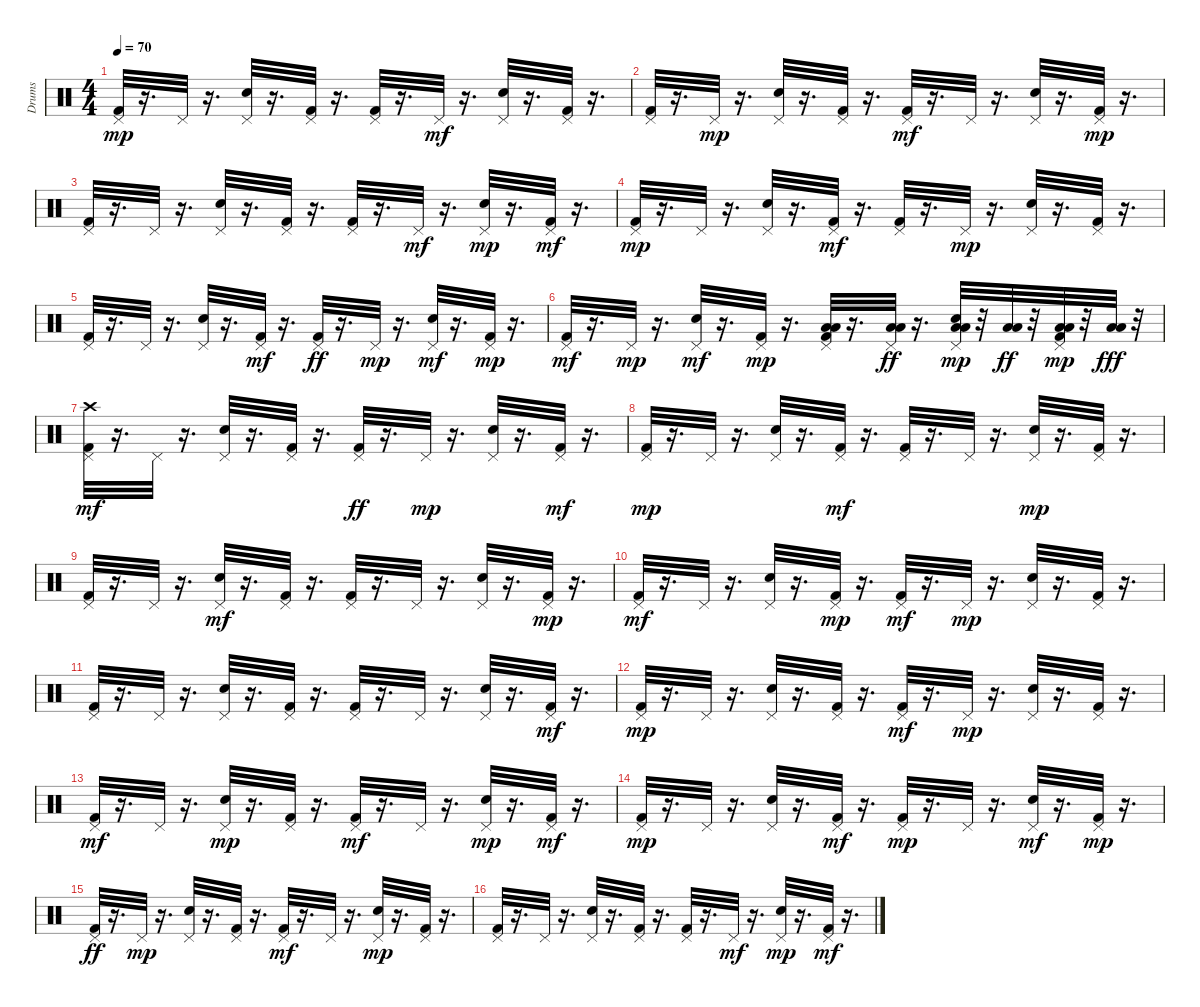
\track ("Drums" "Drums") {instrument percussion}
\staff {score}
\articulation defaults
\ts (4 4)
\tempo 70
\clef neutral
\ks c
("Pedal Hi-Hat (hit)" "Kick (hit) 2").32{dy mp} r.16{d} "Pedal Hi-Hat (hit)".32 r.16{d} ("Snare (hit) 2" "Pedal Hi-Hat (hit)").32 r.16{d} ("Pedal Hi-Hat (hit)" "Kick (hit) 2").32 r.16{d} ("Pedal Hi-Hat (hit)" "Kick (hit) 2").32 r.16{d} "Pedal Hi-Hat (hit)".32{dy mf} r.16{d} ("Snare (hit) 2" "Pedal Hi-Hat (hit)").32 r.16{d} ("Pedal Hi-Hat (hit)" "Kick (hit) 2").32 r.16{d} |
("Kick (hit) 2" "Pedal Hi-Hat (hit)").32 r.16{d} "Pedal Hi-Hat (hit)".32{dy mp} r.16{d} ("Snare (hit) 2" "Pedal Hi-Hat (hit)").32 r.16{d} ("Kick (hit) 2" "Pedal Hi-Hat (hit)").32 r.16{d} ("Kick (hit) 2" "Pedal Hi-Hat (hit)").32{dy mf} r.16{d} "Pedal Hi-Hat (hit)".32 r.16{d} ("Snare (hit) 2" "Pedal Hi-Hat (hit)").32 r.16{d} ("Kick (hit) 2" "Pedal Hi-Hat (hit)").32{dy mp} r.16{d} |
("Kick (hit) 2" "Pedal Hi-Hat (hit)").32 r.16{d} "Pedal Hi-Hat (hit)".32 r.16{d} ("Snare (hit) 2" "Pedal Hi-Hat (hit)").32 r.16{d} ("Kick (hit) 2" "Pedal Hi-Hat (hit)").32 r.16{d} ("Kick (hit) 2" "Pedal Hi-Hat (hit)").32 r.16{d} "Pedal Hi-Hat (hit)".32{dy mf} r.16{d} ("Snare (hit) 2" "Pedal Hi-Hat (hit)").32{dy mp} r.16{d} ("Pedal Hi-Hat (hit)" "Kick (hit) 2").32{dy mf} r.16{d} |
("Kick (hit) 2" "Pedal Hi-Hat (hit)").32{dy mp} r.16{d} "Pedal Hi-Hat (hit)".32 r.16{d} ("Pedal Hi-Hat (hit)" "Snare (hit) 2").32 r.16{d} ("Kick (hit) 2" "Pedal Hi-Hat (hit)").32{dy mf} r.16{d} ("Kick (hit) 2" "Pedal Hi-Hat (hit)").32 r.16{d} "Pedal Hi-Hat (hit)".32{dy mp} r.16{d} ("Snare (hit) 2" "Pedal Hi-Hat (hit)").32 r.16{d} ("Pedal Hi-Hat (hit)" "Kick (hit) 2").32 r.16{d} |
("Pedal Hi-Hat (hit)" "Kick (hit) 2").32 r.16{d} "Pedal Hi-Hat (hit)".32 r.16{d} ("Snare (hit) 2" "Pedal Hi-Hat (hit)").32 r.16{d} ("Kick (hit) 2" "Pedal Hi-Hat (hit)").32{dy mf} r.16{d} ("Pedal Hi-Hat (hit)" "Kick (hit) 2").32{dy ff} r.16{d} "Pedal Hi-Hat (hit)".32{dy mp} r.16{d} ("Pedal Hi-Hat (hit)" "Snare (hit) 2").32{dy mf} r.16{d} ("Kick (hit) 2" "Pedal Hi-Hat (hit)").32{dy mp} r.16{d} |
("Kick (hit) 2" "Pedal Hi-Hat (hit)").32{dy mf} r.16{d} "Pedal Hi-Hat (hit)".32{dy mp} r.16{d} ("Pedal Hi-Hat (hit)" "Snare (hit) 2").32{dy mf} r.16{d} ("Pedal Hi-Hat (hit)" "Kick (hit) 2").32{dy mp} r.16{d} ("Low Floor Tom (hit)" "Kick (hit) 2" "Pedal Hi-Hat (hit)" "Low Tom (hit)").32 r.16{d} ("Pedal Hi-Hat (hit)" "Low Tom (hit)" "Low Floor Tom (hit)").32{dy ff} r.16{d} ("Low Tom (hit)" "Low Floor Tom (hit)" "Snare (hit) 2" "Pedal Hi-Hat (hit)").32{dy mp} r.32 ("Low Tom (hit)" "Low Floor Tom (hit)").32{dy ff} r.32 ("Low Tom (hit)" "Kick (hit) 2" "Low Floor Tom (hit)" "Pedal Hi-Hat (hit)").32{dy mp} r.32 ("Low Floor Tom (hit)" "Low Tom (hit)").32{dy fff} r.32 |
("Pedal Hi-Hat (hit)" "Kick (hit) 2" "Crash high (hit)").32{dy mf} r.16{d} "Pedal Hi-Hat (hit)".32 r.16{d} ("Pedal Hi-Hat (hit)" "Snare (hit) 2").32 r.16{d} ("Pedal Hi-Hat (hit)" "Kick (hit) 2").32 r.16{d} ("Pedal Hi-Hat (hit)" "Kick (hit) 2").32{dy ff} r.16{d} "Pedal Hi-Hat (hit)".32{dy mp} r.16{d} ("Pedal Hi-Hat (hit)" "Snare (hit) 2").32 r.16{d} ("Kick (hit) 2" "Pedal Hi-Hat (hit)").32{dy mf} r.16{d} |
("Kick (hit) 2" "Pedal Hi-Hat (hit)").32{dy mp} r.16{d} "Pedal Hi-Hat (hit)".32 r.16{d} ("Pedal Hi-Hat (hit)" "Snare (hit) 2").32 r.16{d} ("Kick (hit) 2" "Pedal Hi-Hat (hit)").32{dy mf} r.16{d} ("Kick (hit) 2" "Pedal Hi-Hat (hit)").32 r.16{d} "Pedal Hi-Hat (hit)".32 r.16{d} ("Pedal Hi-Hat (hit)" "Snare (hit) 2").32{dy mp} r.16{d} ("Kick (hit) 2" "Pedal Hi-Hat (hit)").32 r.16{d} |
("Kick (hit) 2" "Pedal Hi-Hat (hit)").32 r.16{d} "Pedal Hi-Hat (hit)".32 r.16{d} ("Snare (hit) 2" "Pedal Hi-Hat (hit)").32{dy mf} r.16{d} ("Kick (hit) 2" "Pedal Hi-Hat (hit)").32 r.16{d} ("Pedal Hi-Hat (hit)" "Kick (hit) 2").32 r.16{d} "Pedal Hi-Hat (hit)".32 r.16{d} ("Pedal Hi-Hat (hit)" "Snare (hit) 2").32 r.16{d} ("Kick (hit) 2" "Pedal Hi-Hat (hit)").32{dy mp} r.16{d} |
("Pedal Hi-Hat (hit)" "Kick (hit) 2").32{dy mf} r.16{d} "Pedal Hi-Hat (hit)".32 r.16{d} ("Pedal Hi-Hat (hit)" "Snare (hit) 2").32 r.16{d} ("Kick (hit) 2" "Pedal Hi-Hat (hit)").32{dy mp} r.16{d} ("Kick (hit) 2" "Pedal Hi-Hat (hit)").32{dy mf} r.16{d} "Pedal Hi-Hat (hit)".32{dy mp} r.16{d} ("Pedal Hi-Hat (hit)" "Snare (hit) 2").32 r.16{d} ("Pedal Hi-Hat (hit)" "Kick (hit) 2").32 r.16{d} |
("Kick (hit) 2" "Pedal Hi-Hat (hit)").32 r.16{d} "Pedal Hi-Hat (hit)".32 r.16{d} ("Pedal Hi-Hat (hit)" "Snare (hit) 2").32 r.16{d} ("Pedal Hi-Hat (hit)" "Kick (hit) 2").32 r.16{d} ("Pedal Hi-Hat (hit)" "Kick (hit) 2").32 r.16{d} "Pedal Hi-Hat (hit)".32 r.16{d} ("Snare (hit) 2" "Pedal Hi-Hat (hit)").32 r.16{d} ("Pedal Hi-Hat (hit)" "Kick (hit) 2").32{dy mf} r.16{d} |
("Kick (hit) 2" "Pedal Hi-Hat (hit)").32{dy mp} r.16{d} "Pedal Hi-Hat (hit)".32 r.16{d} ("Pedal Hi-Hat (hit)" "Snare (hit) 2").32 r.16{d} ("Kick (hit) 2" "Pedal Hi-Hat (hit)").32 r.16{d} ("Kick (hit) 2" "Pedal Hi-Hat (hit)").32{dy mf} r.16{d} "Pedal Hi-Hat (hit)".32{dy mp} r.16{d} ("Snare (hit) 2" "Pedal Hi-Hat (hit)").32 r.16{d} ("Pedal Hi-Hat (hit)" "Kick (hit) 2").32 r.16{d} |
("Kick (hit) 2" "Pedal Hi-Hat (hit)").32{dy mf} r.16{d} "Pedal Hi-Hat (hit)".32 r.16{d} ("Snare (hit) 2" "Pedal Hi-Hat (hit)").32{dy mp} r.16{d} ("Kick (hit) 2" "Pedal Hi-Hat (hit)").32 r.16{d} ("Pedal Hi-Hat (hit)" "Kick (hit) 2").32{dy mf} r.16{d} "Pedal Hi-Hat (hit)".32 r.16{d} ("Pedal Hi-Hat (hit)" "Snare (hit) 2").32{dy mp} r.16{d} ("Pedal Hi-Hat (hit)" "Kick (hit) 2").32{dy mf} r.16{d} |
("Pedal Hi-Hat (hit)" "Kick (hit) 2").32{dy mp} r.16{d} "Pedal Hi-Hat (hit)".32 r.16{d} ("Snare (hit) 2" "Pedal Hi-Hat (hit)").32 r.16{d} ("Pedal Hi-Hat (hit)" "Kick (hit) 2").32{dy mf} r.16{d} ("Pedal Hi-Hat (hit)" "Kick (hit) 2").32{dy mp} r.16{d} "Pedal Hi-Hat (hit)".32 r.16{d} ("Pedal Hi-Hat (hit)" "Snare (hit) 2").32{dy mf} r.16{d} ("Kick (hit) 2" "Pedal Hi-Hat (hit)").32{dy mp} r.16{d} |
("Pedal Hi-Hat (hit)" "Kick (hit) 2").32{dy ff} r.16{d} "Pedal Hi-Hat (hit)".32{dy mp} r.16{d} ("Pedal Hi-Hat (hit)" "Snare (hit) 2").32 r.16{d} ("Kick (hit) 2" "Pedal Hi-Hat (hit)").32 r.16{d} ("Kick (hit) 2" "Pedal Hi-Hat (hit)").32{dy mf} r.16{d} "Pedal Hi-Hat (hit)".32 r.16{d} ("Pedal Hi-Hat (hit)" "Snare (hit) 2").32{dy mp} r.16{d} ("Pedal Hi-Hat (hit)" "Kick (hit) 2").32 r.16{d} |
("Pedal Hi-Hat (hit)" "Kick (hit) 2").32 r.16{d} "Pedal Hi-Hat (hit)".32 r.16{d} ("Pedal Hi-Hat (hit)" "Snare (hit) 2").32 r.16{d} ("Pedal Hi-Hat (hit)" "Kick (hit) 2").32 r.16{d} ("Kick (hit) 2" "Pedal Hi-Hat (hit)").32 r.16{d} "Pedal Hi-Hat (hit)".32{dy mf} r.16{d} ("Snare (hit) 2" "Pedal Hi-Hat (hit)").32{dy mp} r.16{d} ("Kick (hit) 2" "Pedal Hi-Hat (hit)").32{dy mf} r.16{d}
